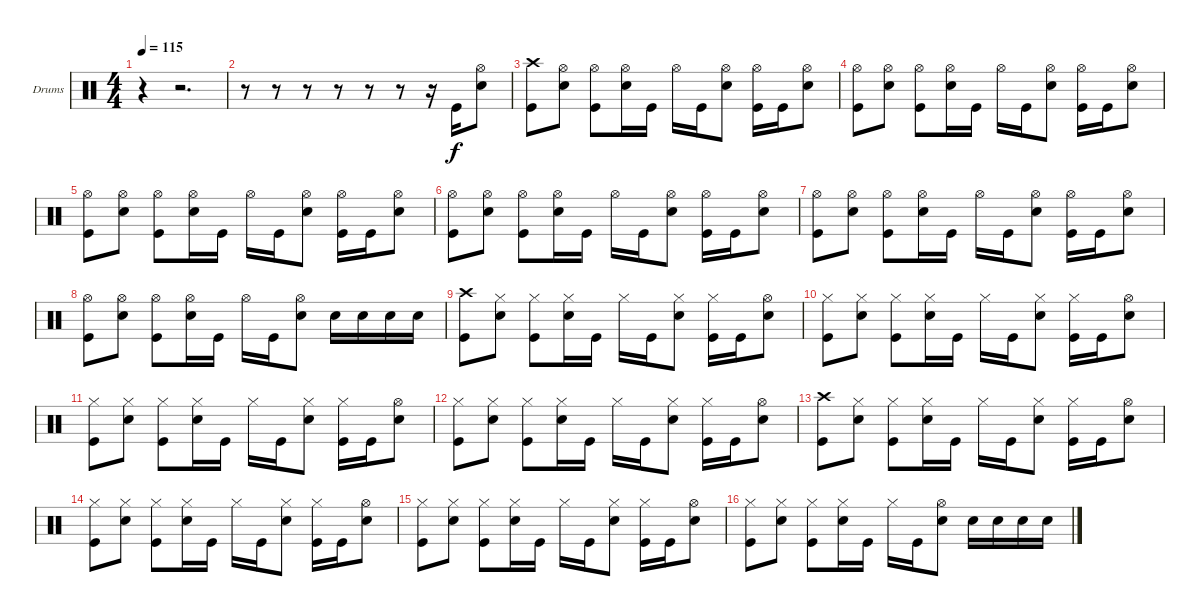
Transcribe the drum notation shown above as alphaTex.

\bracketExtendMode groupsimilarinstruments
\firstSystemTrackNameOrientation horizontal
\otherSystemsTrackNameOrientation horizontal
\track ("Drumkit" "Drums") {instrument percussion}
\staff {score}
\articulation defaults
\ts (4 4)
\tempo 115
\clef neutral
\ks c
r.4{dy f} r.2{d} |
r.8 r.8 r.8 r.8 r.8 r.8 r.16 "Kick (hit)".16 ("Hi-Hat (open)" "Snare (hit) 2").8 |
("Crash high (hit)" "Kick (hit)").8 ("Hi-Hat (open)" "Snare (hit) 2").8 ("Hi-Hat (open)" "Kick (hit)").8 ("Hi-Hat (open)" "Snare (hit) 2").16 "Kick (hit)".16 "Hi-Hat (open)".16 "Kick (hit)".16 ("Hi-Hat (open)" "Snare (hit) 2").8 ("Hi-Hat (open)" "Kick (hit)").16 "Kick (hit)".16 ("Hi-Hat (open)" "Snare (hit) 2").8 |
("Hi-Hat (open)" "Kick (hit)").8 ("Hi-Hat (open)" "Snare (hit) 2").8 ("Hi-Hat (open)" "Kick (hit)").8 ("Hi-Hat (open)" "Snare (hit) 2").16 "Kick (hit)".16 "Hi-Hat (open)".16 "Kick (hit)".16 ("Hi-Hat (open)" "Snare (hit) 2").8 ("Hi-Hat (open)" "Kick (hit)").16 "Kick (hit)".16 ("Hi-Hat (open)" "Snare (hit) 2").8 |
("Hi-Hat (open)" "Kick (hit)").8 ("Hi-Hat (open)" "Snare (hit) 2").8 ("Hi-Hat (open)" "Kick (hit)").8 ("Hi-Hat (open)" "Snare (hit) 2").16 "Kick (hit)".16 "Hi-Hat (open)".16 "Kick (hit)".16 ("Hi-Hat (open)" "Snare (hit) 2").8 ("Hi-Hat (open)" "Kick (hit)").16 "Kick (hit)".16 ("Hi-Hat (open)" "Snare (hit) 2").8 |
("Hi-Hat (open)" "Kick (hit)").8 ("Hi-Hat (open)" "Snare (hit) 2").8 ("Hi-Hat (open)" "Kick (hit)").8 ("Hi-Hat (open)" "Snare (hit) 2").16 "Kick (hit)".16 "Hi-Hat (open)".16 "Kick (hit)".16 ("Hi-Hat (open)" "Snare (hit) 2").8 ("Hi-Hat (open)" "Kick (hit)").16 "Kick (hit)".16 ("Hi-Hat (open)" "Snare (hit) 2").8 |
("Hi-Hat (open)" "Kick (hit)").8 ("Hi-Hat (open)" "Snare (hit) 2").8 ("Hi-Hat (open)" "Kick (hit)").8 ("Hi-Hat (open)" "Snare (hit) 2").16 "Kick (hit)".16 "Hi-Hat (open)".16 "Kick (hit)".16 ("Hi-Hat (open)" "Snare (hit) 2").8 ("Hi-Hat (open)" "Kick (hit)").16 "Kick (hit)".16 ("Hi-Hat (open)" "Snare (hit) 2").8 |
("Hi-Hat (open)" "Kick (hit)").8 ("Hi-Hat (open)" "Snare (hit) 2").8 ("Hi-Hat (open)" "Kick (hit)").8 ("Hi-Hat (open)" "Snare (hit) 2").16 "Kick (hit)".16 "Hi-Hat (open)".16 "Kick (hit)".16 ("Hi-Hat (open)" "Snare (hit) 2").8 "Snare (hit) 2".16 "Snare (hit) 2".16 "Snare (hit) 2".16 "Snare (hit) 2".16 |
("Crash high (hit)" "Kick (hit)").8 ("Hi-Hat (closed)" "Snare (hit) 2").8 ("Hi-Hat (closed)" "Kick (hit)").8 ("Hi-Hat (closed)" "Snare (hit) 2").16 "Kick (hit)".16 "Hi-Hat (closed)".16 "Kick (hit)".16 ("Hi-Hat (closed)" "Snare (hit) 2").8 ("Hi-Hat (closed)" "Kick (hit)").16 "Kick (hit)".16 ("Hi-Hat (open)" "Snare (hit) 2").8 |
("Hi-Hat (closed)" "Kick (hit)").8 ("Hi-Hat (closed)" "Snare (hit) 2").8 ("Hi-Hat (closed)" "Kick (hit)").8 ("Hi-Hat (closed)" "Snare (hit) 2").16 "Kick (hit)".16 "Hi-Hat (closed)".16 "Kick (hit)".16 ("Hi-Hat (closed)" "Snare (hit) 2").8 ("Hi-Hat (closed)" "Kick (hit)").16 "Kick (hit)".16 ("Hi-Hat (open)" "Snare (hit) 2").8 |
("Hi-Hat (closed)" "Kick (hit)").8 ("Hi-Hat (closed)" "Snare (hit) 2").8 ("Hi-Hat (closed)" "Kick (hit)").8 ("Hi-Hat (closed)" "Snare (hit) 2").16 "Kick (hit)".16 "Hi-Hat (closed)".16 "Kick (hit)".16 ("Hi-Hat (closed)" "Snare (hit) 2").8 ("Hi-Hat (closed)" "Kick (hit)").16 "Kick (hit)".16 ("Hi-Hat (open)" "Snare (hit) 2").8 |
("Hi-Hat (closed)" "Kick (hit)").8 ("Hi-Hat (closed)" "Snare (hit) 2").8 ("Hi-Hat (closed)" "Kick (hit)").8 ("Hi-Hat (closed)" "Snare (hit) 2").16 "Kick (hit)".16 "Hi-Hat (closed)".16 "Kick (hit)".16 ("Hi-Hat (closed)" "Snare (hit) 2").8 ("Hi-Hat (closed)" "Kick (hit)").16 "Kick (hit)".16 ("Hi-Hat (open)" "Snare (hit) 2").8 |
("Crash high (hit)" "Kick (hit)").8 ("Hi-Hat (closed)" "Snare (hit) 2").8 ("Hi-Hat (closed)" "Kick (hit)").8 ("Hi-Hat (closed)" "Snare (hit) 2").16 "Kick (hit)".16 "Hi-Hat (closed)".16 "Kick (hit)".16 ("Hi-Hat (closed)" "Snare (hit) 2").8 ("Hi-Hat (closed)" "Kick (hit)").16 "Kick (hit)".16 ("Hi-Hat (open)" "Snare (hit) 2").8 |
("Hi-Hat (closed)" "Kick (hit)").8 ("Hi-Hat (closed)" "Snare (hit) 2").8 ("Hi-Hat (closed)" "Kick (hit)").8 ("Hi-Hat (closed)" "Snare (hit) 2").16 "Kick (hit)".16 "Hi-Hat (closed)".16 "Kick (hit)".16 ("Hi-Hat (closed)" "Snare (hit) 2").8 ("Hi-Hat (closed)" "Kick (hit)").16 "Kick (hit)".16 ("Hi-Hat (open)" "Snare (hit) 2").8 |
("Hi-Hat (closed)" "Kick (hit)").8 ("Hi-Hat (closed)" "Snare (hit) 2").8 ("Hi-Hat (closed)" "Kick (hit)").8 ("Hi-Hat (closed)" "Snare (hit) 2").16 "Kick (hit)".16 "Hi-Hat (closed)".16 "Kick (hit)".16 ("Hi-Hat (closed)" "Snare (hit) 2").8 ("Hi-Hat (closed)" "Kick (hit)").16 "Kick (hit)".16 ("Hi-Hat (open)" "Snare (hit) 2").8 |
("Hi-Hat (closed)" "Kick (hit)").8 ("Hi-Hat (closed)" "Snare (hit) 2").8 ("Hi-Hat (closed)" "Kick (hit)").8 ("Hi-Hat (closed)" "Snare (hit) 2").16 "Kick (hit)".16 "Hi-Hat (closed)".16 "Kick (hit)".16 ("Hi-Hat (open)" "Snare (hit) 2").8 "Snare (hit) 2".16 "Snare (hit) 2".16 "Snare (hit) 2".16 "Snare (hit) 2".16
